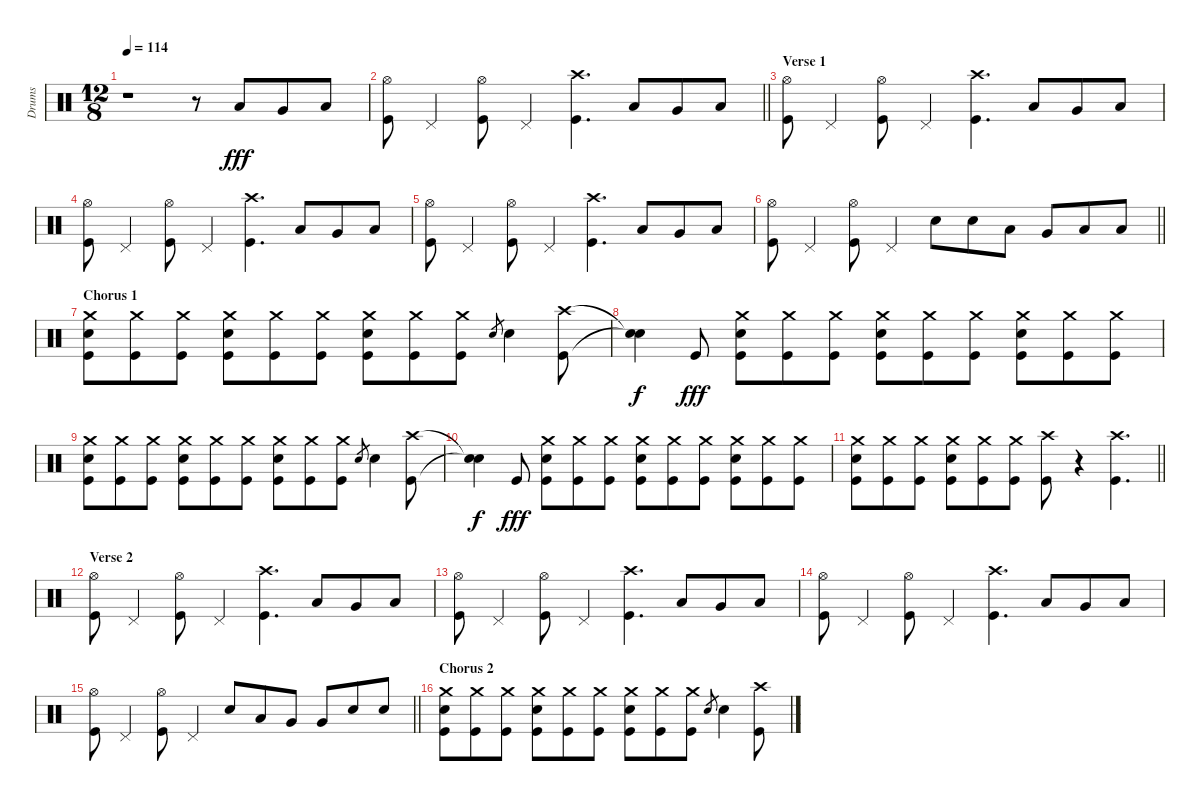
\track ("Drums" "Drums") {instrument percussion}
\staff {score}
\articulation defaults
\ts (12 8)
\tempo 114
\clef neutral
\ks c
r.1{dy fff} r.8 "Low Tom (hit)".8 "Very Low Tom (hit)".8 "Low Floor Tom (hit)".8 |
\barLineRight lightlight
("Hi-Hat (open)" "Kick (hit)").8 "Pedal Hi-Hat (hit)".4 ("Hi-Hat (open)" "Kick (hit)").8 "Pedal Hi-Hat (hit)".4 ("Crash high (hit)" "Kick (hit)").4{d} "Low Tom (hit)".8 "Very Low Tom (hit)".8 "Low Floor Tom (hit)".8 |
\section ("" "Verse 1")
("Hi-Hat (open)" "Kick (hit)").8 "Pedal Hi-Hat (hit)".4 ("Hi-Hat (open)" "Kick (hit)").8 "Pedal Hi-Hat (hit)".4 ("Crash high (hit)" "Kick (hit)").4{d} "Low Tom (hit)".8 "Very Low Tom (hit)".8 "Low Floor Tom (hit)".8 |
("Hi-Hat (open)" "Kick (hit)").8 "Pedal Hi-Hat (hit)".4 ("Hi-Hat (open)" "Kick (hit)").8 "Pedal Hi-Hat (hit)".4 ("Crash high (hit)" "Kick (hit)").4{d} "Low Tom (hit)".8 "Very Low Tom (hit)".8 "Low Floor Tom (hit)".8 |
("Hi-Hat (open)" "Kick (hit)").8 "Pedal Hi-Hat (hit)".4 ("Hi-Hat (open)" "Kick (hit)").8 "Pedal Hi-Hat (hit)".4 ("Crash high (hit)" "Kick (hit)").4{d} "Low Tom (hit)".8 "Very Low Tom (hit)".8 "Low Floor Tom (hit)".8 |
\barLineRight lightlight
("Hi-Hat (open)" "Kick (hit)").8 "Pedal Hi-Hat (hit)".4 ("Hi-Hat (open)" "Kick (hit)").8 "Pedal Hi-Hat (hit)".4 "Snare (hit) 2".8 "Snare (hit) 2".8 "Low Tom (hit)".8 "Very Low Tom (hit)".8 "Low Floor Tom (hit)".8 "Low Floor Tom (hit)".8 |
\section ("" "Chorus 1")
("Crash medium (hit)" "Snare (hit) 2" "Kick (hit)").8 ("Crash medium (hit)" "Kick (hit)").8 ("Crash medium (hit)" "Kick (hit)").8 ("Crash medium (hit)" "Snare (hit) 2" "Kick (hit)").8 ("Crash medium (hit)" "Kick (hit)").8 ("Crash medium (hit)" "Kick (hit)").8 ("Crash medium (hit)" "Snare (hit) 2" "Kick (hit)").8 ("Crash medium (hit)" "Kick (hit)").8 ("Crash medium (hit)" "Kick (hit)").8 "Snare (hit) 2".8{gr} "Snare (hit) 2".4 ("Crash high (hit)" "Kick (hit)").8 |
("Snare (hit)"{t} "Snare (hit)"{t}).4{dy f} "Kick (hit)".8{dy fff} ("Crash medium (hit)" "Snare (hit) 2" "Kick (hit)").8 ("Crash medium (hit)" "Kick (hit)").8 ("Crash medium (hit)" "Kick (hit)").8 ("Crash medium (hit)" "Snare (hit) 2" "Kick (hit)").8 ("Crash medium (hit)" "Kick (hit)").8 ("Crash medium (hit)" "Kick (hit)").8 ("Crash medium (hit)" "Snare (hit) 2" "Kick (hit)").8 ("Crash medium (hit)" "Kick (hit)").8 ("Crash medium (hit)" "Kick (hit)").8 |
("Crash medium (hit)" "Snare (hit) 2" "Kick (hit)").8 ("Crash medium (hit)" "Kick (hit)").8 ("Crash medium (hit)" "Kick (hit)").8 ("Crash medium (hit)" "Snare (hit) 2" "Kick (hit)").8 ("Crash medium (hit)" "Kick (hit)").8 ("Crash medium (hit)" "Kick (hit)").8 ("Crash medium (hit)" "Snare (hit) 2" "Kick (hit)").8 ("Crash medium (hit)" "Kick (hit)").8 ("Crash medium (hit)" "Kick (hit)").8 "Snare (hit) 2".8{gr} "Snare (hit) 2".4 ("Crash high (hit)" "Kick (hit)").8 |
("Snare (hit)"{t} "Snare (hit)"{t}).4{dy f} "Kick (hit)".8{dy fff} ("Crash medium (hit)" "Snare (hit) 2" "Kick (hit)").8 ("Crash medium (hit)" "Kick (hit)").8 ("Crash medium (hit)" "Kick (hit)").8 ("Crash medium (hit)" "Snare (hit) 2" "Kick (hit)").8 ("Crash medium (hit)" "Kick (hit)").8 ("Crash medium (hit)" "Kick (hit)").8 ("Crash medium (hit)" "Snare (hit) 2" "Kick (hit)").8 ("Crash medium (hit)" "Kick (hit)").8 ("Crash medium (hit)" "Kick (hit)").8 |
\barLineRight lightlight
("Crash medium (hit)" "Snare (hit) 2" "Kick (hit)").8 ("Crash medium (hit)" "Kick (hit)").8 ("Crash medium (hit)" "Kick (hit)").8 ("Crash medium (hit)" "Snare (hit) 2" "Kick (hit)").8 ("Crash medium (hit)" "Kick (hit)").8 ("Crash medium (hit)" "Kick (hit)").8 ("Crash high (hit)" "Kick (hit)").8 r.4 ("Crash high (hit)" "Kick (hit)").4{d} |
\section ("" "Verse 2")
("Hi-Hat (open)" "Kick (hit)").8 "Pedal Hi-Hat (hit)".4 ("Hi-Hat (open)" "Kick (hit)").8 "Pedal Hi-Hat (hit)".4 ("Crash high (hit)" "Kick (hit)").4{d} "Low Tom (hit)".8 "Very Low Tom (hit)".8 "Low Floor Tom (hit)".8 |
("Hi-Hat (open)" "Kick (hit)").8 "Pedal Hi-Hat (hit)".4 ("Hi-Hat (open)" "Kick (hit)").8 "Pedal Hi-Hat (hit)".4 ("Crash high (hit)" "Kick (hit)").4{d} "Low Tom (hit)".8 "Very Low Tom (hit)".8 "Low Floor Tom (hit)".8 |
("Hi-Hat (open)" "Kick (hit)").8 "Pedal Hi-Hat (hit)".4 ("Hi-Hat (open)" "Kick (hit)").8 "Pedal Hi-Hat (hit)".4 ("Crash high (hit)" "Kick (hit)").4{d} "Low Tom (hit)".8 "Very Low Tom (hit)".8 "Low Floor Tom (hit)".8 |
\barLineRight lightlight
("Hi-Hat (open)" "Kick (hit)").8 "Pedal Hi-Hat (hit)".4 ("Hi-Hat (open)" "Kick (hit)").8 "Pedal Hi-Hat (hit)".4 "Snare (hit) 2".8 "Low Tom (hit)".8 "Very Low Tom (hit)".8 "Very Low Tom (hit)".8 "Snare (hit) 2".8 "Snare (hit) 2".8 |
\section ("" "Chorus 2")
("Crash medium (hit)" "Snare (hit) 2" "Kick (hit)").8 ("Crash medium (hit)" "Kick (hit)").8 ("Crash medium (hit)" "Kick (hit)").8 ("Crash medium (hit)" "Snare (hit) 2" "Kick (hit)").8 ("Crash medium (hit)" "Kick (hit)").8 ("Crash medium (hit)" "Kick (hit)").8 ("Crash medium (hit)" "Snare (hit) 2" "Kick (hit)").8 ("Crash medium (hit)" "Kick (hit)").8 ("Crash medium (hit)" "Kick (hit)").8 "Snare (hit) 2".8{gr} "Snare (hit) 2".4 ("Crash high (hit)" "Kick (hit)").8
